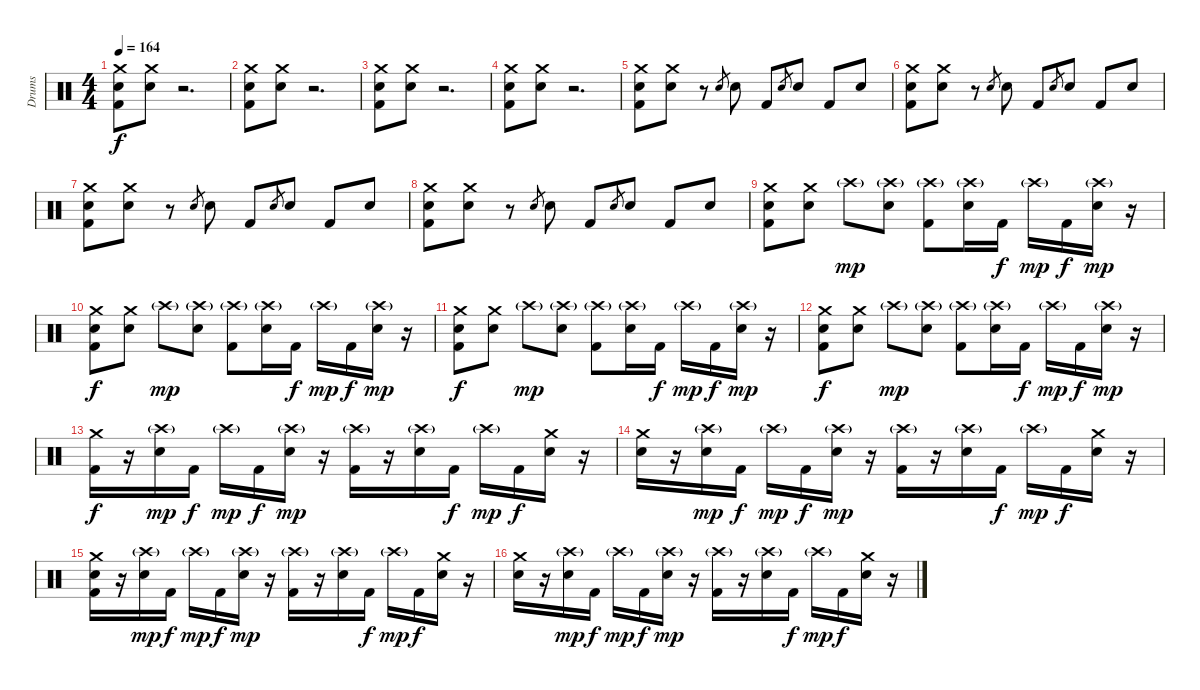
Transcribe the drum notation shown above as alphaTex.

\track ("Drums" "Drums") {instrument percussion}
\staff {score}
\articulation defaults
\ts (4 4)
\tempo 164
\clef neutral
\ks c
("Crash medium (hit)" "Snare (hit) 2" "Kick (hit) 2").8{dy f} ("Crash medium (hit)" "Snare (hit) 2").8 r.2{d} |
("Crash medium (hit)" "Snare (hit) 2" "Kick (hit) 2").8 ("Crash medium (hit)" "Snare (hit) 2").8 r.2{d} |
("Crash medium (hit)" "Snare (hit) 2" "Kick (hit) 2").8 ("Crash medium (hit)" "Snare (hit) 2").8 r.2{d} |
("Crash medium (hit)" "Snare (hit) 2" "Kick (hit) 2").8 ("Crash medium (hit)" "Snare (hit) 2").8 r.2{d} |
("Crash medium (hit)" "Snare (hit) 2" "Kick (hit) 2").8 ("Crash medium (hit)" "Snare (hit) 2").8 r.8 "Snare (hit) 2".8{gr} "Snare (hit) 2".8 "Kick (hit) 2".8 "Snare (hit) 2".8{gr} "Snare (hit) 2".8 "Kick (hit) 2".8 "Snare (hit) 2".8 |
("Crash medium (hit)" "Snare (hit) 2" "Kick (hit) 2").8 ("Crash medium (hit)" "Snare (hit) 2").8 r.8 "Snare (hit) 2".8{gr} "Snare (hit) 2".8 "Kick (hit) 2".8 "Snare (hit) 2".8{gr} "Snare (hit) 2".8 "Kick (hit) 2".8 "Snare (hit) 2".8 |
("Crash medium (hit)" "Snare (hit) 2" "Kick (hit) 2").8 ("Crash medium (hit)" "Snare (hit) 2").8 r.8 "Snare (hit) 2".8{gr} "Snare (hit) 2".8 "Kick (hit) 2".8 "Snare (hit) 2".8{gr} "Snare (hit) 2".8 "Kick (hit) 2".8 "Snare (hit) 2".8 |
("Crash medium (hit)" "Snare (hit) 2" "Kick (hit) 2").8 ("Crash medium (hit)" "Snare (hit) 2").8 r.8 "Snare (hit) 2".8{gr} "Snare (hit) 2".8 "Kick (hit) 2".8 "Snare (hit) 2".8{gr} "Snare (hit) 2".8 "Kick (hit) 2".8 "Snare (hit) 2".8 |
("Crash medium (hit)" "Snare (hit) 2" "Kick (hit) 2").8 ("Crash medium (hit)" "Snare (hit) 2").8 "Crash high (hit)"{g}.8{dy mp} ("Crash high (hit)"{g} "Snare (hit) 2").8 ("Crash high (hit)"{g} "Kick (hit) 2").8 ("Crash high (hit)"{g} "Snare (hit) 2").16 "Kick (hit) 2".16{dy f} "Crash high (hit)"{g}.16{dy mp} "Kick (hit) 2".16{dy f} ("Crash high (hit)"{g} "Snare (hit) 2").16{dy mp} r.16 |
("Crash medium (hit)" "Snare (hit) 2" "Kick (hit) 2").8{dy f} ("Crash medium (hit)" "Snare (hit) 2").8 "Crash high (hit)"{g}.8{dy mp} ("Crash high (hit)"{g} "Snare (hit) 2").8 ("Crash high (hit)"{g} "Kick (hit) 2").8 ("Crash high (hit)"{g} "Snare (hit) 2").16 "Kick (hit) 2".16{dy f} "Crash high (hit)"{g}.16{dy mp} "Kick (hit) 2".16{dy f} ("Crash high (hit)"{g} "Snare (hit) 2").16{dy mp} r.16 |
("Crash medium (hit)" "Snare (hit) 2" "Kick (hit) 2").8{dy f} ("Crash medium (hit)" "Snare (hit) 2").8 "Crash high (hit)"{g}.8{dy mp} ("Crash high (hit)"{g} "Snare (hit) 2").8 ("Crash high (hit)"{g} "Kick (hit) 2").8 ("Crash high (hit)"{g} "Snare (hit) 2").16 "Kick (hit) 2".16{dy f} "Crash high (hit)"{g}.16{dy mp} "Kick (hit) 2".16{dy f} ("Crash high (hit)"{g} "Snare (hit) 2").16{dy mp} r.16 |
("Crash medium (hit)" "Snare (hit) 2" "Kick (hit) 2").8{dy f} ("Crash medium (hit)" "Snare (hit) 2").8 "Crash high (hit)"{g}.8{dy mp} ("Crash high (hit)"{g} "Snare (hit) 2").8 ("Crash high (hit)"{g} "Kick (hit) 2").8 ("Crash high (hit)"{g} "Snare (hit) 2").16 "Kick (hit) 2".16{dy f} "Crash high (hit)"{g}.16{dy mp} "Kick (hit) 2".16{dy f} ("Crash high (hit)"{g} "Snare (hit) 2").16{dy mp} r.16 |
("Crash medium (hit)" "Kick (hit) 2").16{dy f} r.16 ("Crash high (hit)"{g} "Snare (hit) 2").16{dy mp} "Kick (hit) 2".16{dy f} "Crash high (hit)"{g}.16{dy mp} "Kick (hit) 2".16{dy f} ("Crash high (hit)"{g} "Snare (hit) 2").16{dy mp} r.16 ("Crash high (hit)"{g} "Kick (hit) 2").16 r.16 ("Crash high (hit)"{g} "Snare (hit) 2").16 "Kick (hit) 2".16{dy f} "Crash high (hit)"{g}.16{dy mp} "Kick (hit) 2".16{dy f} ("Crash medium (hit)" "Snare (hit) 2").16 r.16 |
("Crash medium (hit)" "Snare (hit) 2").16 r.16 ("Crash high (hit)"{g} "Snare (hit) 2").16{dy mp} "Kick (hit) 2".16{dy f} "Crash high (hit)"{g}.16{dy mp} "Kick (hit) 2".16{dy f} ("Crash high (hit)"{g} "Snare (hit) 2").16{dy mp} r.16 ("Crash high (hit)"{g} "Kick (hit) 2").16 r.16 ("Crash high (hit)"{g} "Snare (hit) 2").16 "Kick (hit) 2".16{dy f} "Crash high (hit)"{g}.16{dy mp} "Kick (hit) 2".16{dy f} ("Crash medium (hit)" "Snare (hit) 2").16 r.16 |
("Crash medium (hit)" "Snare (hit) 2" "Kick (hit) 2").16 r.16 ("Crash high (hit)"{g} "Snare (hit) 2").16{dy mp} "Kick (hit) 2".16{dy f} "Crash high (hit)"{g}.16{dy mp} "Kick (hit) 2".16{dy f} ("Crash high (hit)"{g} "Snare (hit) 2").16{dy mp} r.16 ("Crash high (hit)"{g} "Kick (hit) 2").16 r.16 ("Crash high (hit)"{g} "Snare (hit) 2").16 "Kick (hit) 2".16{dy f} "Crash high (hit)"{g}.16{dy mp} "Kick (hit) 2".16{dy f} ("Crash medium (hit)" "Snare (hit) 2").16 r.16 |
("Crash medium (hit)" "Snare (hit) 2").16 r.16 ("Crash high (hit)"{g} "Snare (hit) 2").16{dy mp} "Kick (hit) 2".16{dy f} "Crash high (hit)"{g}.16{dy mp} "Kick (hit) 2".16{dy f} ("Crash high (hit)"{g} "Snare (hit) 2").16{dy mp} r.16 ("Crash high (hit)"{g} "Kick (hit) 2").16 r.16 ("Crash high (hit)"{g} "Snare (hit) 2").16 "Kick (hit) 2".16{dy f} "Crash high (hit)"{g}.16{dy mp} "Kick (hit) 2".16{dy f} ("Crash medium (hit)" "Snare (hit) 2").16 r.16
